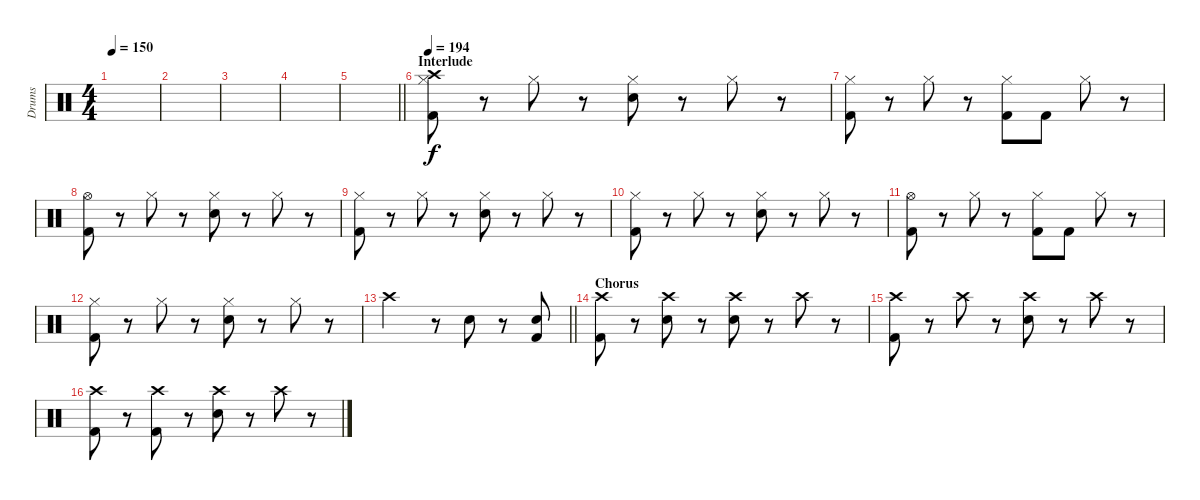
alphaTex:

\track ("Drums" "Drums") {solo instrument percussion}
\staff {score}
\articulation defaults
\ts (4 4)
\tempo 150
\clef neutral
\ks c
|
|
|
|
\barLineRight lightlight
|
\section ("" "Interlude")
\tempo 194
("Hi-Hat (closed)" "Crash high (hit)" "Kick (hit) 2").8 r.8 "Hi-Hat (closed)".8 r.8 ("Hi-Hat (closed)" "Snare (hit) 2").8 r.8 "Hi-Hat (closed)".8 r.8 |
("Hi-Hat (closed)" "Kick (hit) 2").8 r.8 "Hi-Hat (closed)".8 r.8 ("Hi-Hat (closed)" "Kick (hit) 2").8 "Kick (hit) 2".8 "Hi-Hat (closed)".8 r.8 |
("Hi-Hat (open)" "Kick (hit) 2").8 r.8 "Hi-Hat (closed)".8 r.8 ("Hi-Hat (closed)" "Snare (hit) 2").8 r.8 "Hi-Hat (closed)".8 r.8 |
("Hi-Hat (closed)" "Kick (hit) 2").8 r.8 "Hi-Hat (closed)".8 r.8 ("Hi-Hat (closed)" "Snare (hit) 2").8 r.8 "Hi-Hat (closed)".8 r.8 |
("Hi-Hat (closed)" "Kick (hit) 2").8 r.8 "Hi-Hat (closed)".8 r.8 ("Hi-Hat (closed)" "Snare (hit) 2").8 r.8 "Hi-Hat (closed)".8 r.8 |
("Hi-Hat (open)" "Kick (hit) 2").8 r.8 "Hi-Hat (closed)".8 r.8 ("Hi-Hat (closed)" "Kick (hit) 2").8 "Kick (hit) 2".8 "Hi-Hat (closed)".8 r.8 |
("Hi-Hat (closed)" "Kick (hit) 2").8 r.8 "Hi-Hat (closed)".8 r.8 ("Hi-Hat (closed)" "Snare (hit) 2").8 r.8 "Hi-Hat (closed)".8 r.8 |
\barLineRight lightlight "Crash high (hit)".2
r.8 "Snare (hit) 2".8 r.8 ("Snare (hit) 2" "Kick (hit) 2").8 |
\section ("" "Chorus")
("Crash high (hit)" "Kick (hit) 2").8 r.8 ("Crash high (hit)" "Snare (hit) 2").8 r.8 ("Crash high (hit)" "Snare (hit) 2").8 r.8 "Crash high (hit)".8 r.8 |
("Crash high (hit)" "Kick (hit) 2").8 r.8 "Crash high (hit)".8 r.8 ("Crash high (hit)" "Snare (hit) 2").8 r.8 "Crash high (hit)".8 r.8 |
("Crash high (hit)" "Kick (hit) 2").8 r.8 ("Crash high (hit)" "Kick (hit) 2").8 r.8 ("Crash high (hit)" "Snare (hit) 2").8 r.8 "Crash high (hit)".8 r.8
